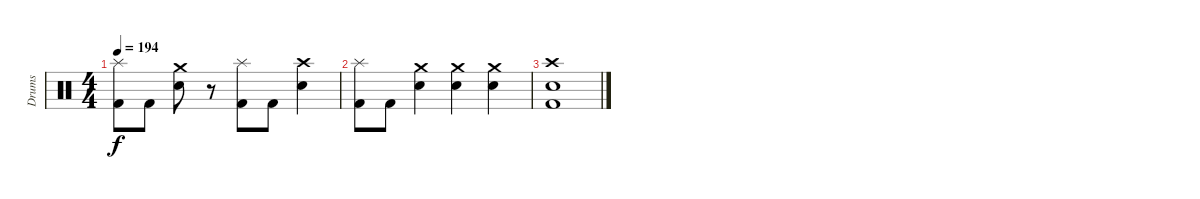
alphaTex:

\track ("Drums" "Drums") {instrument percussion}
\staff {score}
\articulation defaults
\ts (4 4)
\tempo 194
\clef neutral
\ks c
("Splash (hit)" "Kick (hit) 2").8{dy f} "Kick (hit) 2".8 ("Crash medium (hit)" "Snare (hit) 2").8 r.8 ("Splash (hit)" "Kick (hit) 2").8 "Kick (hit) 2".8 ("Crash high (hit)" "Snare (hit) 2").4 |
("Splash (hit)" "Kick (hit) 2").8 "Kick (hit) 2".8 ("Crash medium (hit)" "Snare (hit) 2").4 ("Crash medium (hit)" "Snare (hit) 2").4 ("Crash medium (hit)" "Snare (hit) 2").4 |
("Crash high (hit)" "Snare (hit) 2" "Kick (hit) 2").1
